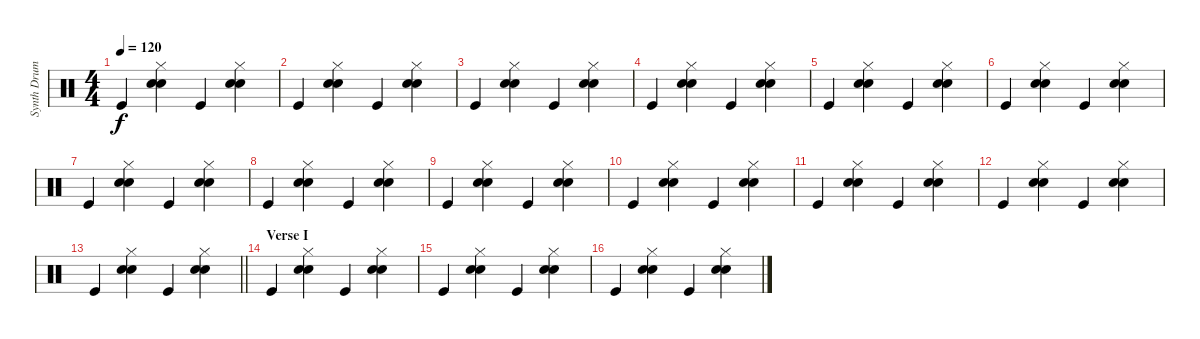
\track ("Synth Drums" "Synth Drum") {instrument percussion}
\staff {score}
\articulation defaults
\ts (4 4)
\tempo 120
\clef neutral
\ks c "Kick (hit)".4{dy f}
("Hi-Hat (closed)" "Snare (hit) 2" "Hand Clap (hit)").4 "Kick (hit)".4 ("Hi-Hat (closed)" "Snare (hit) 2" "Hand Clap (hit)").4 |
"Kick (hit)".4 ("Hi-Hat (closed)" "Snare (hit) 2" "Hand Clap (hit)").4 "Kick (hit)".4 ("Hi-Hat (closed)" "Snare (hit) 2" "Hand Clap (hit)").4 |
"Kick (hit)".4 ("Hi-Hat (closed)" "Snare (hit) 2" "Hand Clap (hit)").4 "Kick (hit)".4 ("Hi-Hat (closed)" "Snare (hit) 2" "Hand Clap (hit)").4 |
"Kick (hit)".4 ("Hi-Hat (closed)" "Snare (hit) 2" "Hand Clap (hit)").4 "Kick (hit)".4 ("Hi-Hat (closed)" "Snare (hit) 2" "Hand Clap (hit)").4 |
"Kick (hit)".4 ("Hi-Hat (closed)" "Snare (hit) 2" "Hand Clap (hit)").4 "Kick (hit)".4 ("Hi-Hat (closed)" "Snare (hit) 2" "Hand Clap (hit)").4 |
"Kick (hit)".4 ("Hi-Hat (closed)" "Snare (hit) 2" "Hand Clap (hit)").4 "Kick (hit)".4 ("Hi-Hat (closed)" "Snare (hit) 2" "Hand Clap (hit)").4 |
"Kick (hit)".4 ("Hi-Hat (closed)" "Snare (hit) 2" "Hand Clap (hit)").4 "Kick (hit)".4 ("Hi-Hat (closed)" "Snare (hit) 2" "Hand Clap (hit)").4 |
"Kick (hit)".4 ("Hi-Hat (closed)" "Snare (hit) 2" "Hand Clap (hit)").4 "Kick (hit)".4 ("Hi-Hat (closed)" "Snare (hit) 2" "Hand Clap (hit)").4 |
"Kick (hit)".4 ("Hi-Hat (closed)" "Snare (hit) 2" "Hand Clap (hit)").4 "Kick (hit)".4 ("Hi-Hat (closed)" "Snare (hit) 2" "Hand Clap (hit)").4 |
"Kick (hit)".4 ("Hi-Hat (closed)" "Snare (hit) 2" "Hand Clap (hit)").4 "Kick (hit)".4 ("Hi-Hat (closed)" "Snare (hit) 2" "Hand Clap (hit)").4 |
"Kick (hit)".4 ("Hi-Hat (closed)" "Snare (hit) 2" "Hand Clap (hit)").4 "Kick (hit)".4 ("Hi-Hat (closed)" "Snare (hit) 2" "Hand Clap (hit)").4 |
"Kick (hit)".4 ("Hi-Hat (closed)" "Snare (hit) 2" "Hand Clap (hit)").4 "Kick (hit)".4 ("Hi-Hat (closed)" "Snare (hit) 2" "Hand Clap (hit)").4 |
\barLineRight lightlight "Kick (hit)".4
("Hi-Hat (closed)" "Snare (hit) 2" "Hand Clap (hit)").4 "Kick (hit)".4 ("Hi-Hat (closed)" "Snare (hit) 2" "Hand Clap (hit)").4 |
\section ("" "Verse I")
"Kick (hit)".4 ("Hi-Hat (closed)" "Snare (hit) 2" "Hand Clap (hit)").4 "Kick (hit)".4 ("Hi-Hat (closed)" "Snare (hit) 2" "Hand Clap (hit)").4 |
"Kick (hit)".4 ("Hi-Hat (closed)" "Snare (hit) 2" "Hand Clap (hit)").4 "Kick (hit)".4 ("Hi-Hat (closed)" "Snare (hit) 2" "Hand Clap (hit)").4 |
"Kick (hit)".4 ("Hi-Hat (closed)" "Snare (hit) 2" "Hand Clap (hit)").4 "Kick (hit)".4 ("Hi-Hat (closed)" "Snare (hit) 2" "Hand Clap (hit)").4
